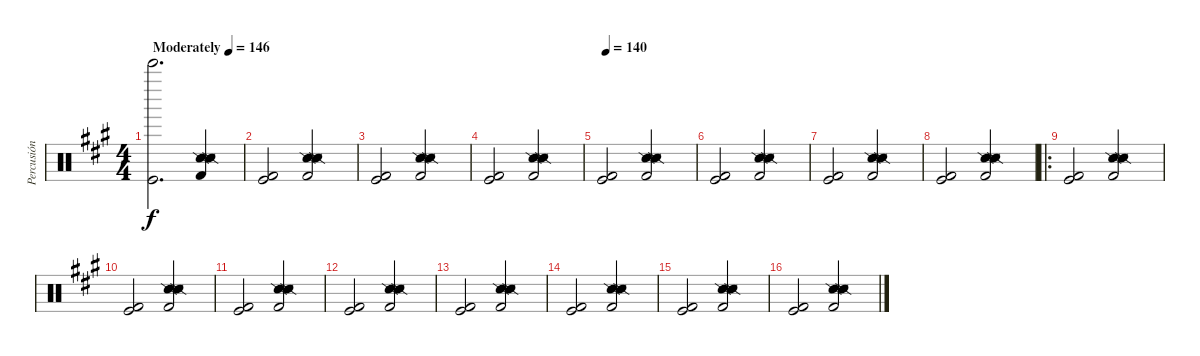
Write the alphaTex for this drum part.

\track ("Percusión" "Percusión") {instrument percussion}
\staff {score}
\articulation defaults
\ts (4 4)
\tempo (146 "Moderately")
\tempo 140
\tempo (146 "Moderately")
\clef neutral
\ks a
("Bell Tree (hit)" "Kick (hit)").2{d dy f} ("Snare (side stick) 2" "Metronome (hit)" "Kick (hit) 2" "Snare (side stick) 2").4 |
("Kick (hit) 2" "Kick (hit)").2 ("Snare (side stick) 2" "Metronome (hit)" "Kick (hit) 2" "Snare (side stick) 2").2 |
("Kick (hit) 2" "Kick (hit)").2 ("Snare (side stick) 2" "Metronome (hit)" "Kick (hit) 2" "Snare (side stick) 2").2 |
("Kick (hit) 2" "Kick (hit)").2 ("Snare (side stick) 2" "Metronome (hit)" "Kick (hit) 2" "Snare (side stick) 2").2 |
\tempo 140
("Kick (hit) 2" "Kick (hit)").2 ("Snare (side stick) 2" "Metronome (hit)" "Kick (hit) 2" "Snare (side stick) 2").2 |
("Kick (hit) 2" "Kick (hit)").2 ("Snare (side stick) 2" "Metronome (hit)" "Kick (hit) 2" "Snare (side stick) 2").2 |
("Kick (hit) 2" "Kick (hit)").2 ("Snare (side stick) 2" "Metronome (hit)" "Kick (hit) 2" "Snare (side stick) 2").2 |
("Kick (hit) 2" "Kick (hit)").2 ("Snare (side stick) 2" "Metronome (hit)" "Kick (hit) 2" "Snare (side stick) 2").2 |
\ro
("Kick (hit) 2" "Kick (hit)").2 ("Snare (side stick) 2" "Metronome (hit)" "Kick (hit) 2" "Snare (side stick) 2").2 |
("Kick (hit) 2" "Kick (hit)").2 ("Snare (side stick) 2" "Metronome (hit)" "Kick (hit) 2" "Snare (side stick) 2").2 |
("Kick (hit) 2" "Kick (hit)").2 ("Snare (side stick) 2" "Metronome (hit)" "Kick (hit) 2" "Snare (side stick) 2").2 |
("Kick (hit) 2" "Kick (hit)").2 ("Snare (side stick) 2" "Metronome (hit)" "Kick (hit) 2" "Snare (side stick) 2").2 |
("Kick (hit) 2" "Kick (hit)").2 ("Snare (side stick) 2" "Metronome (hit)" "Kick (hit) 2" "Snare (side stick) 2").2 |
("Kick (hit) 2" "Kick (hit)").2 ("Snare (side stick) 2" "Metronome (hit)" "Kick (hit) 2" "Snare (side stick) 2").2 |
("Kick (hit) 2" "Kick (hit)").2 ("Snare (side stick) 2" "Metronome (hit)" "Kick (hit) 2" "Snare (side stick) 2").2 |
("Kick (hit) 2" "Kick (hit)").2 ("Snare (side stick) 2" "Metronome (hit)" "Kick (hit) 2" "Snare (side stick) 2").2
